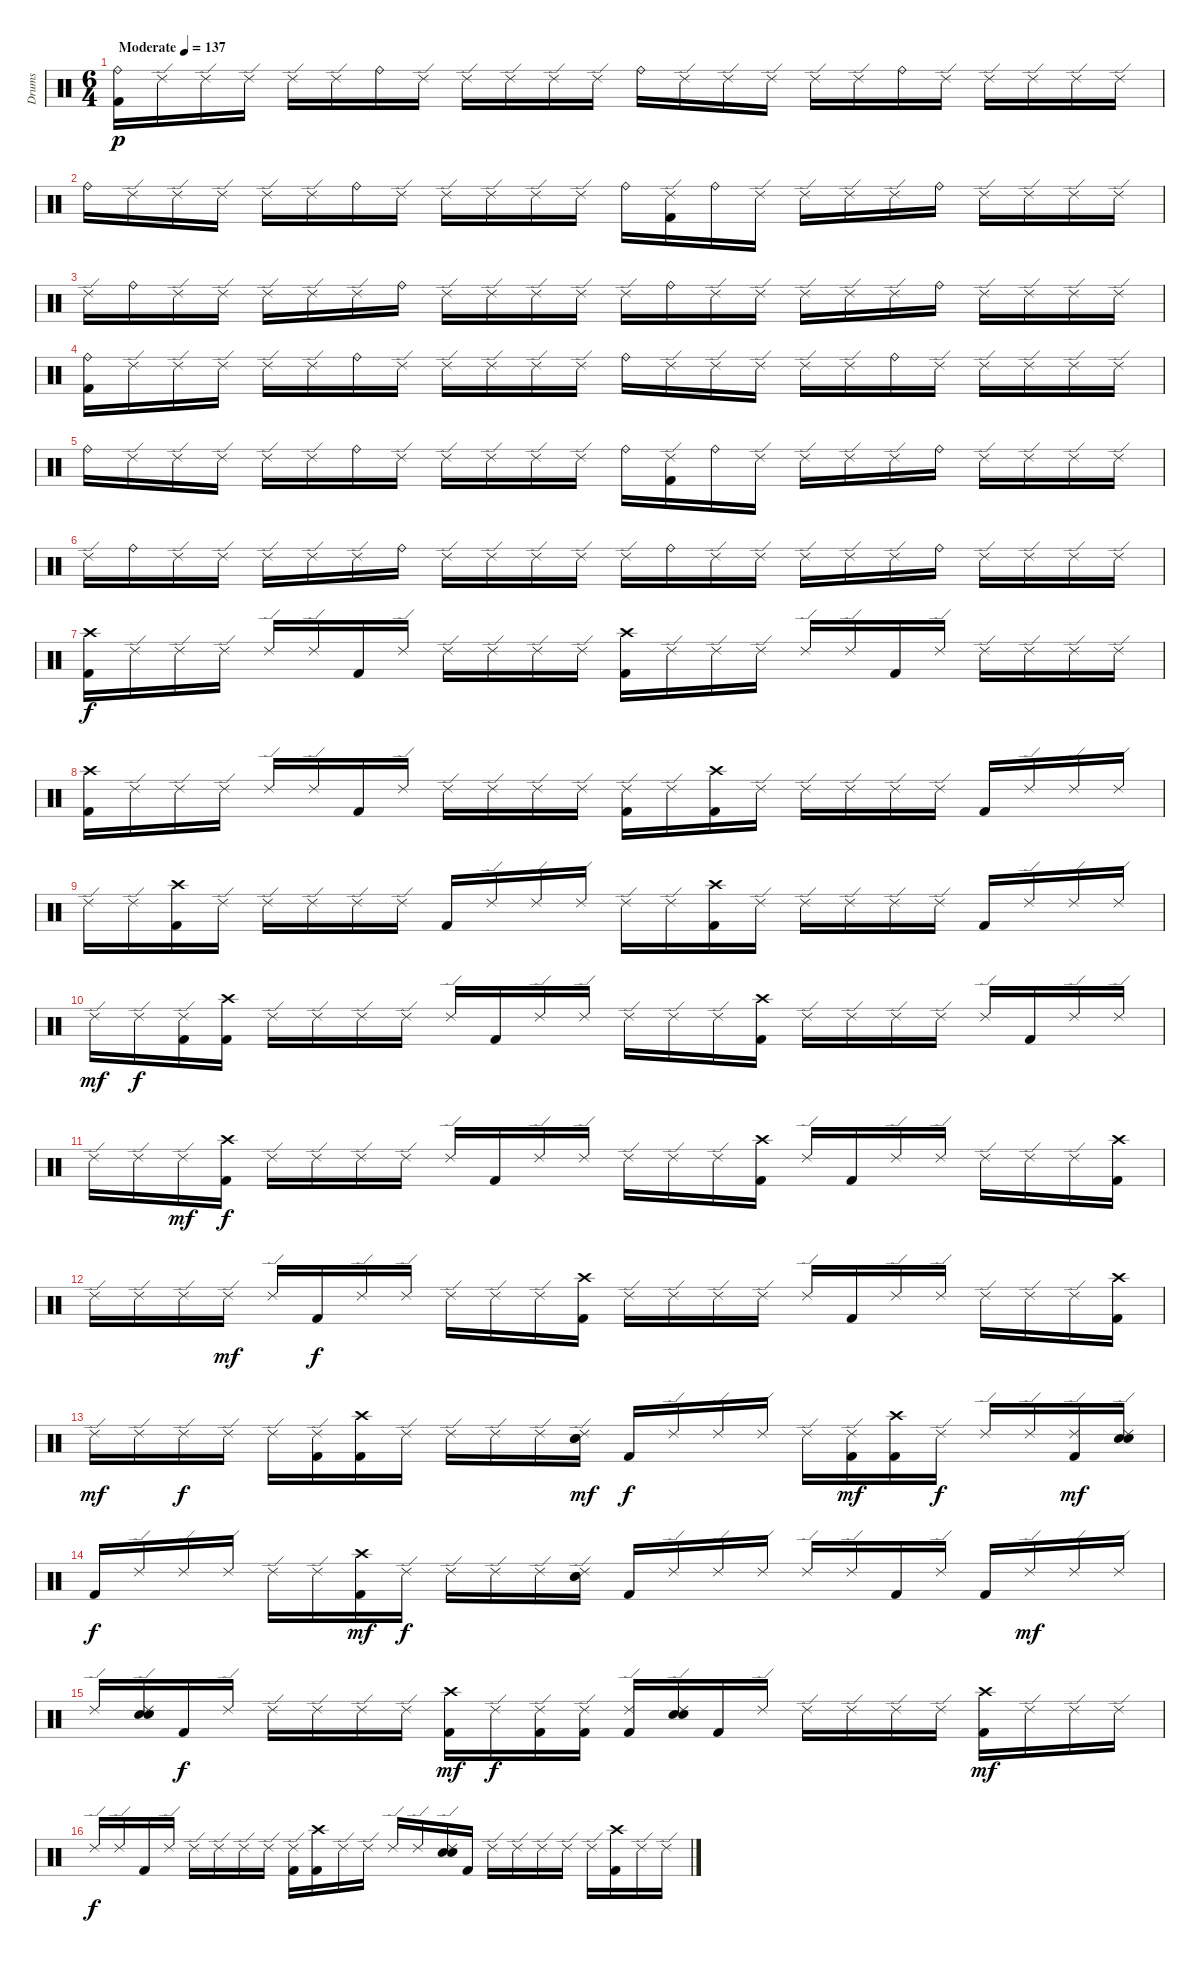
\track ("Drums" "Drums") {instrument percussion}
\staff {score}
\articulation defaults
\ts (6 4)
\tempo (137 "Moderate")
\clef neutral
\ks c
("Ride (bell)" "Kick (hit) 2").16{dy p} "Ride (edge) 2".16 "Ride (edge) 2".16 "Ride (edge) 2".16 "Ride (edge) 2".16 "Ride (edge) 2".16 "Ride (bell)".16 "Ride (edge) 2".16 "Ride (edge) 2".16 "Ride (edge) 2".16 "Ride (edge) 2".16 "Ride (edge) 2".16 "Ride (bell)".16 "Ride (edge) 2".16 "Ride (edge) 2".16 "Ride (edge) 2".16 "Ride (edge) 2".16 "Ride (edge) 2".16 "Ride (bell)".16 "Ride (edge) 2".16 "Ride (edge) 2".16 "Ride (edge) 2".16 "Ride (edge) 2".16 "Ride (edge) 2".16 |
"Ride (bell)".16 "Ride (edge) 2".16 "Ride (edge) 2".16 "Ride (edge) 2".16 "Ride (edge) 2".16 "Ride (edge) 2".16 "Ride (bell)".16 "Ride (edge) 2".16 "Ride (edge) 2".16 "Ride (edge) 2".16 "Ride (edge) 2".16 "Ride (edge) 2".16 "Ride (bell)".16 ("Ride (edge) 2" "Kick (hit) 2").16 "Ride (bell)".16 "Ride (edge) 2".16 "Ride (edge) 2".16 "Ride (edge) 2".16 "Ride (edge) 2".16 "Ride (bell)".16 "Ride (edge) 2".16 "Ride (edge) 2".16 "Ride (edge) 2".16 "Ride (edge) 2".16 |
"Ride (edge) 2".16 "Ride (bell)".16 "Ride (edge) 2".16 "Ride (edge) 2".16 "Ride (edge) 2".16 "Ride (edge) 2".16 "Ride (edge) 2".16 "Ride (bell)".16 "Ride (edge) 2".16 "Ride (edge) 2".16 "Ride (edge) 2".16 "Ride (edge) 2".16 "Ride (edge) 2".16 "Ride (bell)".16 "Ride (edge) 2".16 "Ride (edge) 2".16 "Ride (edge) 2".16 "Ride (edge) 2".16 "Ride (edge) 2".16 "Ride (bell)".16 "Ride (edge) 2".16 "Ride (edge) 2".16 "Ride (edge) 2".16 "Ride (edge) 2".16 |
("Ride (bell)" "Kick (hit) 2").16 "Ride (edge) 2".16 "Ride (edge) 2".16 "Ride (edge) 2".16 "Ride (edge) 2".16 "Ride (edge) 2".16 "Ride (bell)".16 "Ride (edge) 2".16 "Ride (edge) 2".16 "Ride (edge) 2".16 "Ride (edge) 2".16 "Ride (edge) 2".16 "Ride (bell)".16 "Ride (edge) 2".16 "Ride (edge) 2".16 "Ride (edge) 2".16 "Ride (edge) 2".16 "Ride (edge) 2".16 "Ride (bell)".16 "Ride (edge) 2".16 "Ride (edge) 2".16 "Ride (edge) 2".16 "Ride (edge) 2".16 "Ride (edge) 2".16 |
"Ride (bell)".16 "Ride (edge) 2".16 "Ride (edge) 2".16 "Ride (edge) 2".16 "Ride (edge) 2".16 "Ride (edge) 2".16 "Ride (bell)".16 "Ride (edge) 2".16 "Ride (edge) 2".16 "Ride (edge) 2".16 "Ride (edge) 2".16 "Ride (edge) 2".16 "Ride (bell)".16 ("Ride (edge) 2" "Kick (hit) 2").16 "Ride (bell)".16 "Ride (edge) 2".16 "Ride (edge) 2".16 "Ride (edge) 2".16 "Ride (edge) 2".16 "Ride (bell)".16 "Ride (edge) 2".16 "Ride (edge) 2".16 "Ride (edge) 2".16 "Ride (edge) 2".16 |
"Ride (edge) 2".16 "Ride (bell)".16 "Ride (edge) 2".16 "Ride (edge) 2".16 "Ride (edge) 2".16 "Ride (edge) 2".16 "Ride (edge) 2".16 "Ride (bell)".16 "Ride (edge) 2".16 "Ride (edge) 2".16 "Ride (edge) 2".16 "Ride (edge) 2".16 "Ride (edge) 2".16 "Ride (bell)".16 "Ride (edge) 2".16 "Ride (edge) 2".16 "Ride (edge) 2".16 "Ride (edge) 2".16 "Ride (edge) 2".16 "Ride (bell)".16 "Ride (edge) 2".16 "Ride (edge) 2".16 "Ride (edge) 2".16 "Ride (edge) 2".16 |
("Crash high (hit)" "Kick (hit) 2").16{dy f} "Ride (edge) 2".16 "Ride (edge) 2".16 "Ride (edge) 2".16 "Ride (edge) 2".16 "Ride (edge) 2".16 "Kick (hit) 2".16 "Ride (edge) 2".16 "Ride (edge) 2".16 "Ride (edge) 2".16 "Ride (edge) 2".16 "Ride (edge) 2".16 ("Crash high (hit)" "Kick (hit) 2").16 "Ride (edge) 2".16 "Ride (edge) 2".16 "Ride (edge) 2".16 "Ride (edge) 2".16 "Ride (edge) 2".16 "Kick (hit) 2".16 "Ride (edge) 2".16 "Ride (edge) 2".16 "Ride (edge) 2".16 "Ride (edge) 2".16 "Ride (edge) 2".16 |
("Crash high (hit)" "Kick (hit) 2").16 "Ride (edge) 2".16 "Ride (edge) 2".16 "Ride (edge) 2".16 "Ride (edge) 2".16 "Ride (edge) 2".16 "Kick (hit) 2".16 "Ride (edge) 2".16 "Ride (edge) 2".16 "Ride (edge) 2".16 "Ride (edge) 2".16 "Ride (edge) 2".16 ("Ride (edge) 2" "Kick (hit) 2").16 "Ride (edge) 2".16 ("Crash high (hit)" "Kick (hit) 2").16 "Ride (edge) 2".16 "Ride (edge) 2".16 "Ride (edge) 2".16 "Ride (edge) 2".16 "Ride (edge) 2".16 "Kick (hit) 2".16 "Ride (edge) 2".16 "Ride (edge) 2".16 "Ride (edge) 2".16 |
"Ride (edge) 2".16 "Ride (edge) 2".16 ("Crash high (hit)" "Kick (hit) 2").16 "Ride (edge) 2".16 "Ride (edge) 2".16 "Ride (edge) 2".16 "Ride (edge) 2".16 "Ride (edge) 2".16 "Kick (hit) 2".16 "Ride (edge) 2".16 "Ride (edge) 2".16 "Ride (edge) 2".16 "Ride (edge) 2".16 "Ride (edge) 2".16 ("Crash high (hit)" "Kick (hit) 2").16 "Ride (edge) 2".16 "Ride (edge) 2".16 "Ride (edge) 2".16 "Ride (edge) 2".16 "Ride (edge) 2".16 "Kick (hit) 2".16 "Ride (edge) 2".16 "Ride (edge) 2".16 "Ride (edge) 2".16 |
"Ride (edge) 2".16{dy mf} "Ride (edge) 2".16{dy f} ("Ride (edge) 2" "Kick (hit) 2").16 ("Crash high (hit)" "Kick (hit) 2").16 "Ride (edge) 2".16 "Ride (edge) 2".16 "Ride (edge) 2".16 "Ride (edge) 2".16 "Ride (edge) 2".16 "Kick (hit) 2".16 "Ride (edge) 2".16 "Ride (edge) 2".16 "Ride (edge) 2".16 "Ride (edge) 2".16 "Ride (edge) 2".16 ("Crash high (hit)" "Kick (hit) 2").16 "Ride (edge) 2".16 "Ride (edge) 2".16 "Ride (edge) 2".16 "Ride (edge) 2".16 "Ride (edge) 2".16 "Kick (hit) 2".16 "Ride (edge) 2".16 "Ride (edge) 2".16 |
"Ride (edge) 2".16 "Ride (edge) 2".16 "Ride (edge) 2".16{dy mf} ("Crash high (hit)" "Kick (hit) 2").16{dy f} "Ride (edge) 2".16 "Ride (edge) 2".16 "Ride (edge) 2".16 "Ride (edge) 2".16 "Ride (edge) 2".16 "Kick (hit) 2".16 "Ride (edge) 2".16 "Ride (edge) 2".16 "Ride (edge) 2".16 "Ride (edge) 2".16 "Ride (edge) 2".16 ("Crash high (hit)" "Kick (hit) 2").16 "Ride (edge) 2".16 "Kick (hit) 2".16 "Ride (edge) 2".16 "Ride (edge) 2".16 "Ride (edge) 2".16 "Ride (edge) 2".16 "Ride (edge) 2".16 ("Crash high (hit)" "Kick (hit) 2").16 |
"Ride (edge) 2".16 "Ride (edge) 2".16 "Ride (edge) 2".16 "Ride (edge) 2".16{dy mf} "Ride (edge) 2".16 "Kick (hit) 2".16{dy f} "Ride (edge) 2".16 "Ride (edge) 2".16 "Ride (edge) 2".16 "Ride (edge) 2".16 "Ride (edge) 2".16 ("Crash high (hit)" "Kick (hit) 2").16 "Ride (edge) 2".16 "Ride (edge) 2".16 "Ride (edge) 2".16 "Ride (edge) 2".16 "Ride (edge) 2".16 "Kick (hit) 2".16 "Ride (edge) 2".16 "Ride (edge) 2".16 "Ride (edge) 2".16 "Ride (edge) 2".16 "Ride (edge) 2".16 ("Crash high (hit)" "Kick (hit) 2").16 |
"Ride (edge) 2".16{dy mf} "Ride (edge) 2".16 "Ride (edge) 2".16{dy f} "Ride (edge) 2".16 "Ride (edge) 2".16 ("Ride (edge) 2" "Kick (hit) 2").16 ("Crash high (hit)" "Kick (hit) 2").16 "Ride (edge) 2".16 "Ride (edge) 2".16 "Ride (edge) 2".16 "Ride (edge) 2".16 ("Ride (edge) 2" "Snare (hit) 2" "Snare (hit) 2").16{dy mf} "Kick (hit) 2".16{dy f} "Ride (edge) 2".16 "Ride (edge) 2".16 "Ride (edge) 2".16 "Ride (edge) 2".16 ("Ride (edge) 2" "Kick (hit) 2").16{dy mf} ("Crash high (hit)" "Kick (hit) 2").16 "Ride (edge) 2".16{dy f} "Ride (edge) 2".16 "Ride (edge) 2".16 ("Ride (edge) 2" "Kick (hit) 2").16{dy mf} ("Ride (edge) 2" "Snare (hit) 2" "Snare (hit) 2").16 |
"Kick (hit) 2".16{dy f} "Ride (edge) 2".16 "Ride (edge) 2".16 "Ride (edge) 2".16 "Ride (edge) 2".16 "Ride (edge) 2".16 ("Crash high (hit)" "Kick (hit) 2").16{dy mf} "Ride (edge) 2".16{dy f} "Ride (edge) 2".16 "Ride (edge) 2".16 "Ride (edge) 2".16 ("Ride (edge) 2" "Snare (hit) 2" "Snare (hit) 2").16 "Kick (hit) 2".16 "Ride (edge) 2".16 "Ride (edge) 2".16 "Ride (edge) 2".16 "Ride (edge) 2".16 "Ride (edge) 2".16 "Kick (hit) 2".16 "Ride (edge) 2".16 "Kick (hit) 2".16 "Ride (edge) 2".16{dy mf} "Ride (edge) 2".16 "Ride (edge) 2".16 |
"Ride (edge) 2".16 ("Ride (edge) 2" "Snare (hit) 2" "Snare (hit) 2").16 "Kick (hit) 2".16{dy f} "Ride (edge) 2".16 "Ride (edge) 2".16 "Ride (edge) 2".16 "Ride (edge) 2".16 "Ride (edge) 2".16 ("Crash high (hit)" "Kick (hit) 2").16{dy mf} "Ride (edge) 2".16{dy f} ("Ride (edge) 2" "Kick (hit) 2").16 ("Ride (edge) 2" "Kick (hit) 2").16 ("Ride (edge) 2" "Kick (hit) 2").16 ("Ride (edge) 2" "Snare (hit) 2" "Snare (hit) 2").16 "Kick (hit) 2".16 "Ride (edge) 2".16 "Ride (edge) 2".16 "Ride (edge) 2".16 "Ride (edge) 2".16 "Ride (edge) 2".16 ("Crash high (hit)" "Kick (hit) 2").16{dy mf} "Ride (edge) 2".16 "Ride (edge) 2".16 "Ride (edge) 2".16 |
"Ride (edge) 2".16{dy f} "Ride (edge) 2".16 "Kick (hit) 2".16 "Ride (edge) 2".16 "Ride (edge) 2".16 "Ride (edge) 2".16 "Ride (edge) 2".16 "Ride (edge) 2".16 ("Ride (edge) 2" "Kick (hit) 2").16 ("Crash high (hit)" "Kick (hit) 2").16 "Ride (edge) 2".16 "Ride (edge) 2".16 "Ride (edge) 2".16 "Ride (edge) 2".16 ("Ride (edge) 2" "Snare (hit) 2" "Snare (hit) 2").16 "Kick (hit) 2".16 "Ride (edge) 2".16 "Ride (edge) 2".16 "Ride (edge) 2".16 "Ride (edge) 2".16 "Ride (edge) 2".16 ("Crash high (hit)" "Kick (hit) 2").16 "Ride (edge) 2".16 "Ride (edge) 2".16
